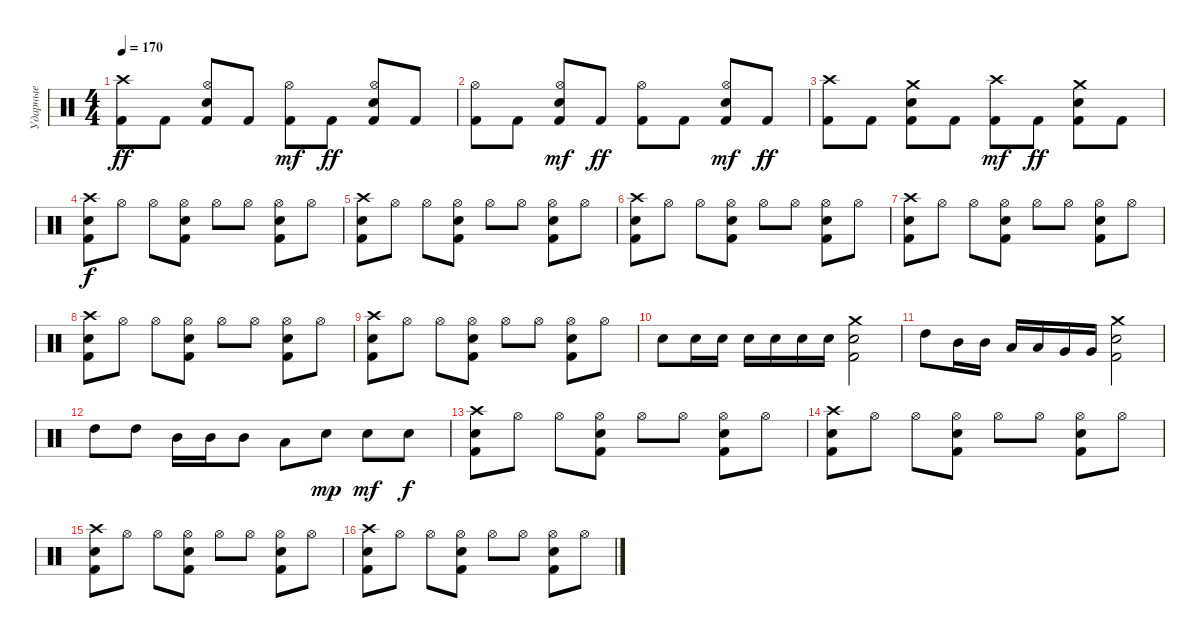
\track ("Ударные" "Ударные") {instrument percussion}
\staff {score}
\articulation defaults
\ts (4 4)
\tempo 170
\clef neutral
\ks c
("Crash high (hit)" "Kick (hit) 2").8{dy ff} "Kick (hit) 2".8 ("Hi-Hat (open)" "Kick (hit) 2" "Electric Snare (hit)").8 "Kick (hit) 2".8 ("Kick (hit) 2" "Hi-Hat (open)").8{dy mf} "Kick (hit) 2".8{dy ff} ("Kick (hit) 2" "Hi-Hat (open)" "Electric Snare (hit)").8 "Kick (hit) 2".8 |
("Hi-Hat (open)" "Kick (hit) 2").8 "Kick (hit) 2".8 ("Kick (hit) 2" "Electric Snare (hit)" "Hi-Hat (open)").8{dy mf} "Kick (hit) 2".8{dy ff} ("Hi-Hat (open)" "Kick (hit) 2").8 "Kick (hit) 2".8 ("Kick (hit) 2" "Electric Snare (hit)" "Hi-Hat (open)").8{dy mf} "Kick (hit) 2".8{dy ff} |
("Crash high (hit)" "Kick (hit) 2").8 "Kick (hit) 2".8 ("Crash medium (hit)" "Kick (hit) 2" "Electric Snare (hit)").8 "Kick (hit) 2".8 ("Kick (hit) 2" "Crash high (hit)").8{dy mf} "Kick (hit) 2".8{dy ff} ("Kick (hit) 2" "Crash medium (hit)" "Electric Snare (hit)").8 "Kick (hit) 2".8 |
("Crash high (hit)" "Electric Snare (hit)" "Kick (hit) 2").8{dy f} "Hi-Hat (open)".8 "Hi-Hat (open)".8 ("Electric Snare (hit)" "Hi-Hat (open)" "Kick (hit) 2").8 "Hi-Hat (open)".8 "Hi-Hat (open)".8 ("Electric Snare (hit)" "Hi-Hat (open)" "Kick (hit) 2").8 "Hi-Hat (open)".8 |
("Crash high (hit)" "Electric Snare (hit)" "Kick (hit) 2").8 "Hi-Hat (open)".8 "Hi-Hat (open)".8 ("Electric Snare (hit)" "Hi-Hat (open)" "Kick (hit) 2").8 "Hi-Hat (open)".8 "Hi-Hat (open)".8 ("Electric Snare (hit)" "Hi-Hat (open)" "Kick (hit) 2").8 "Hi-Hat (open)".8 |
("Crash high (hit)" "Electric Snare (hit)" "Kick (hit) 2").8 "Hi-Hat (open)".8 "Hi-Hat (open)".8 ("Electric Snare (hit)" "Hi-Hat (open)" "Kick (hit) 2").8 "Hi-Hat (open)".8 "Hi-Hat (open)".8 ("Electric Snare (hit)" "Hi-Hat (open)" "Kick (hit) 2").8 "Hi-Hat (open)".8 |
("Crash high (hit)" "Electric Snare (hit)" "Kick (hit) 2").8 "Hi-Hat (open)".8 "Hi-Hat (open)".8 ("Electric Snare (hit)" "Hi-Hat (open)" "Kick (hit) 2").8 "Hi-Hat (open)".8 "Hi-Hat (open)".8 ("Electric Snare (hit)" "Hi-Hat (open)" "Kick (hit) 2").8 "Hi-Hat (open)".8 |
("Crash high (hit)" "Electric Snare (hit)" "Kick (hit) 2").8 "Hi-Hat (open)".8 "Hi-Hat (open)".8 ("Electric Snare (hit)" "Hi-Hat (open)" "Kick (hit) 2").8 "Hi-Hat (open)".8 "Hi-Hat (open)".8 ("Electric Snare (hit)" "Hi-Hat (open)" "Kick (hit) 2").8 "Hi-Hat (open)".8 |
("Crash high (hit)" "Electric Snare (hit)" "Kick (hit) 2").8 "Hi-Hat (open)".8 "Hi-Hat (open)".8 ("Electric Snare (hit)" "Hi-Hat (open)" "Kick (hit) 2").8 "Hi-Hat (open)".8 "Hi-Hat (open)".8 ("Electric Snare (hit)" "Hi-Hat (open)" "Kick (hit) 2").8 "Hi-Hat (open)".8 |
"Electric Snare (hit)".8 "Electric Snare (hit)".16 "Electric Snare (hit)".16 "Electric Snare (hit)".16 "Electric Snare (hit)".16 "Electric Snare (hit)".16 "Electric Snare (hit)".16 ("Crash medium (hit)" "Electric Snare (hit)" "Kick (hit) 2").2 |
"High Tom (hit)".8 "Mid Tom (hit)".16 "Mid Tom (hit)".16 "Low Tom (hit)".16 "Low Tom (hit)".16 "Very Low Tom (hit)".16 "Very Low Tom (hit)".16 ("Crash medium (hit)" "Kick (hit) 2" "Electric Snare (hit)").2 |
"High Tom (hit)".8 "High Tom (hit)".8 "Mid Tom (hit)".16 "Mid Tom (hit)".16 "Mid Tom (hit)".8 "Low Tom (hit)".8 "Electric Snare (hit)".8{dy mp} "Electric Snare (hit)".8{dy mf} "Electric Snare (hit)".8{dy f} |
("Crash high (hit)" "Electric Snare (hit)" "Kick (hit) 2").8 "Hi-Hat (open)".8 "Hi-Hat (open)".8 ("Electric Snare (hit)" "Hi-Hat (open)" "Kick (hit) 2").8 "Hi-Hat (open)".8 "Hi-Hat (open)".8 ("Electric Snare (hit)" "Hi-Hat (open)" "Kick (hit) 2").8 "Hi-Hat (open)".8 |
("Crash high (hit)" "Electric Snare (hit)" "Kick (hit) 2").8 "Hi-Hat (open)".8 "Hi-Hat (open)".8 ("Electric Snare (hit)" "Hi-Hat (open)" "Kick (hit) 2").8 "Hi-Hat (open)".8 "Hi-Hat (open)".8 ("Electric Snare (hit)" "Hi-Hat (open)" "Kick (hit) 2").8 "Hi-Hat (open)".8 |
("Crash high (hit)" "Electric Snare (hit)" "Kick (hit) 2").8 "Hi-Hat (open)".8 "Hi-Hat (open)".8 ("Electric Snare (hit)" "Hi-Hat (open)" "Kick (hit) 2").8 "Hi-Hat (open)".8 "Hi-Hat (open)".8 ("Electric Snare (hit)" "Hi-Hat (open)" "Kick (hit) 2").8 "Hi-Hat (open)".8 |
("Crash high (hit)" "Electric Snare (hit)" "Kick (hit) 2").8 "Hi-Hat (open)".8 "Hi-Hat (open)".8 ("Electric Snare (hit)" "Hi-Hat (open)" "Kick (hit) 2").8 "Hi-Hat (open)".8 "Hi-Hat (open)".8 ("Electric Snare (hit)" "Hi-Hat (open)" "Kick (hit) 2").8 "Hi-Hat (open)".8
